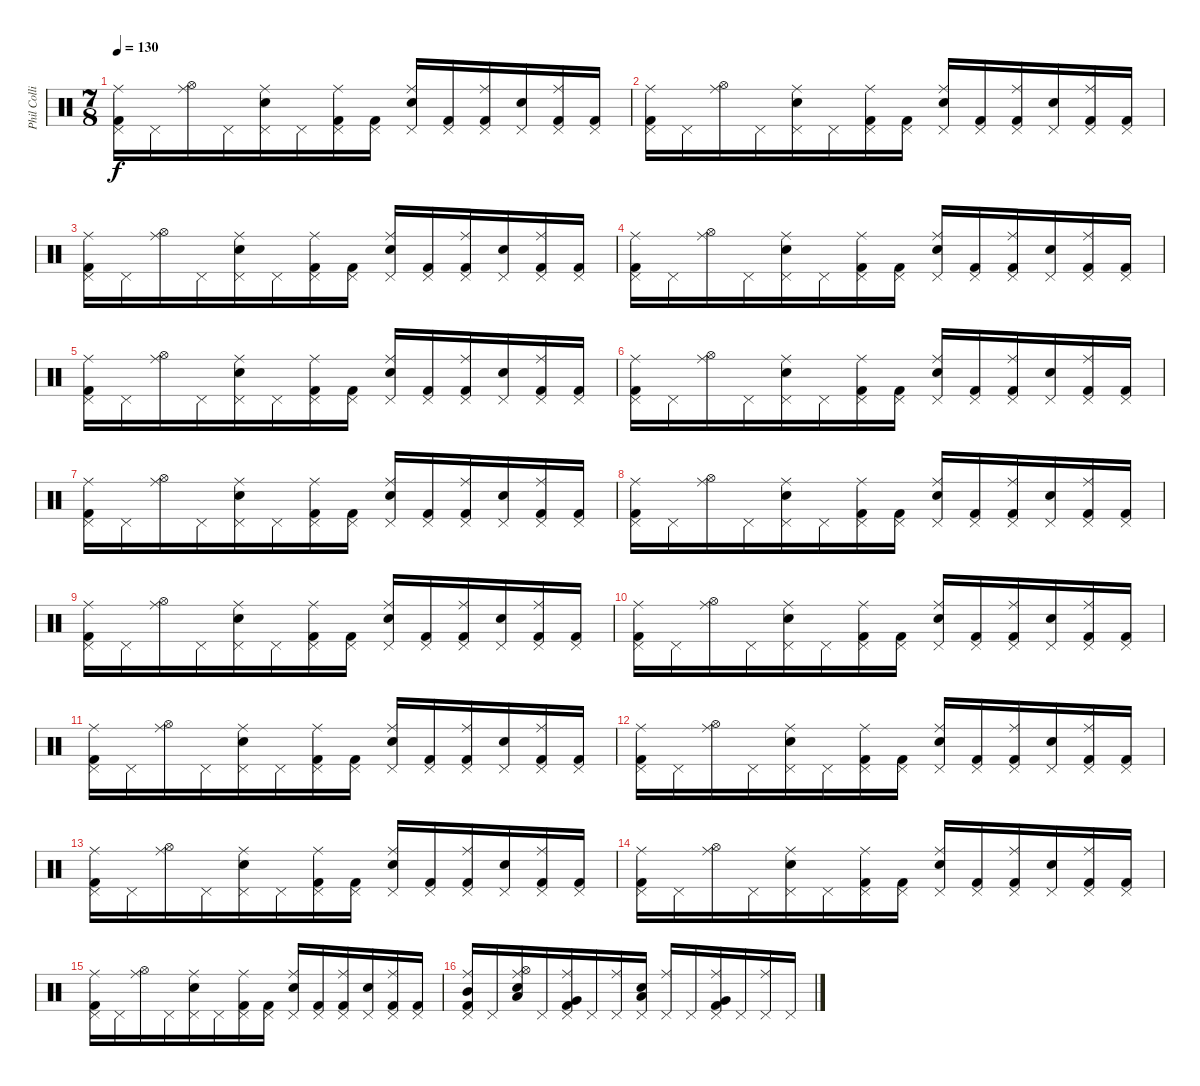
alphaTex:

\track ("Phil Collins (drums)" "Phil Colli") {instrument percussion}
\staff {score}
\articulation defaults
\ts (7 8)
\tempo 130
\clef neutral
\ks c
("Ride (middle)" "Pedal Hi-Hat (hit)" "Kick (hit) 2").16{dy f} "Pedal Hi-Hat (hit)".16 ("Ride (middle)" "Hi-Hat (open)").16 "Pedal Hi-Hat (hit)".16 ("Ride (middle)" "Pedal Hi-Hat (hit)" "Electric Snare (hit)").16 "Pedal Hi-Hat (hit)".16 ("Ride (middle)" "Pedal Hi-Hat (hit)" "Kick (hit) 2").16 ("Pedal Hi-Hat (hit)" "Kick (hit) 2").16 ("Ride (middle)" "Pedal Hi-Hat (hit)" "Electric Snare (hit)").16 ("Pedal Hi-Hat (hit)" "Kick (hit) 2").16 ("Ride (middle)" "Pedal Hi-Hat (hit)" "Kick (hit) 2").16 ("Pedal Hi-Hat (hit)" "Electric Snare (hit)").16 ("Ride (middle)" "Pedal Hi-Hat (hit)" "Kick (hit) 2").16 ("Pedal Hi-Hat (hit)" "Kick (hit) 2").16 |
("Ride (middle)" "Pedal Hi-Hat (hit)" "Kick (hit) 2").16 "Pedal Hi-Hat (hit)".16 ("Ride (middle)" "Hi-Hat (open)").16 "Pedal Hi-Hat (hit)".16 ("Ride (middle)" "Pedal Hi-Hat (hit)" "Electric Snare (hit)").16 "Pedal Hi-Hat (hit)".16 ("Ride (middle)" "Pedal Hi-Hat (hit)" "Kick (hit) 2").16 ("Pedal Hi-Hat (hit)" "Kick (hit) 2").16 ("Ride (middle)" "Pedal Hi-Hat (hit)" "Electric Snare (hit)").16 ("Pedal Hi-Hat (hit)" "Kick (hit) 2").16 ("Ride (middle)" "Pedal Hi-Hat (hit)" "Kick (hit) 2").16 ("Pedal Hi-Hat (hit)" "Electric Snare (hit)").16 ("Ride (middle)" "Pedal Hi-Hat (hit)" "Kick (hit) 2").16 ("Pedal Hi-Hat (hit)" "Kick (hit) 2").16 |
("Ride (middle)" "Pedal Hi-Hat (hit)" "Kick (hit) 2").16 "Pedal Hi-Hat (hit)".16 ("Ride (middle)" "Hi-Hat (open)").16 "Pedal Hi-Hat (hit)".16 ("Ride (middle)" "Pedal Hi-Hat (hit)" "Electric Snare (hit)").16 "Pedal Hi-Hat (hit)".16 ("Ride (middle)" "Pedal Hi-Hat (hit)" "Kick (hit) 2").16 ("Pedal Hi-Hat (hit)" "Kick (hit) 2").16 ("Ride (middle)" "Pedal Hi-Hat (hit)" "Electric Snare (hit)").16 ("Pedal Hi-Hat (hit)" "Kick (hit) 2").16 ("Ride (middle)" "Pedal Hi-Hat (hit)" "Kick (hit) 2").16 ("Pedal Hi-Hat (hit)" "Electric Snare (hit)").16 ("Ride (middle)" "Pedal Hi-Hat (hit)" "Kick (hit) 2").16 ("Pedal Hi-Hat (hit)" "Kick (hit) 2").16 |
("Ride (middle)" "Pedal Hi-Hat (hit)" "Kick (hit) 2").16 "Pedal Hi-Hat (hit)".16 ("Ride (middle)" "Hi-Hat (open)").16 "Pedal Hi-Hat (hit)".16 ("Ride (middle)" "Pedal Hi-Hat (hit)" "Electric Snare (hit)").16 "Pedal Hi-Hat (hit)".16 ("Ride (middle)" "Pedal Hi-Hat (hit)" "Kick (hit) 2").16 ("Pedal Hi-Hat (hit)" "Kick (hit) 2").16 ("Ride (middle)" "Pedal Hi-Hat (hit)" "Electric Snare (hit)").16 ("Pedal Hi-Hat (hit)" "Kick (hit) 2").16 ("Ride (middle)" "Pedal Hi-Hat (hit)" "Kick (hit) 2").16 ("Pedal Hi-Hat (hit)" "Electric Snare (hit)").16 ("Ride (middle)" "Pedal Hi-Hat (hit)" "Kick (hit) 2").16 ("Pedal Hi-Hat (hit)" "Kick (hit) 2").16 |
("Ride (middle)" "Pedal Hi-Hat (hit)" "Kick (hit) 2").16 "Pedal Hi-Hat (hit)".16 ("Ride (middle)" "Hi-Hat (open)").16 "Pedal Hi-Hat (hit)".16 ("Ride (middle)" "Pedal Hi-Hat (hit)" "Electric Snare (hit)").16 "Pedal Hi-Hat (hit)".16 ("Ride (middle)" "Pedal Hi-Hat (hit)" "Kick (hit) 2").16 ("Pedal Hi-Hat (hit)" "Kick (hit) 2").16 ("Ride (middle)" "Pedal Hi-Hat (hit)" "Electric Snare (hit)").16 ("Pedal Hi-Hat (hit)" "Kick (hit) 2").16 ("Ride (middle)" "Pedal Hi-Hat (hit)" "Kick (hit) 2").16 ("Pedal Hi-Hat (hit)" "Electric Snare (hit)").16 ("Ride (middle)" "Pedal Hi-Hat (hit)" "Kick (hit) 2").16 ("Pedal Hi-Hat (hit)" "Kick (hit) 2").16 |
("Ride (middle)" "Pedal Hi-Hat (hit)" "Kick (hit) 2").16 "Pedal Hi-Hat (hit)".16 ("Ride (middle)" "Hi-Hat (open)").16 "Pedal Hi-Hat (hit)".16 ("Ride (middle)" "Pedal Hi-Hat (hit)" "Electric Snare (hit)").16 "Pedal Hi-Hat (hit)".16 ("Ride (middle)" "Pedal Hi-Hat (hit)" "Kick (hit) 2").16 ("Pedal Hi-Hat (hit)" "Kick (hit) 2").16 ("Ride (middle)" "Pedal Hi-Hat (hit)" "Electric Snare (hit)").16 ("Pedal Hi-Hat (hit)" "Kick (hit) 2").16 ("Ride (middle)" "Pedal Hi-Hat (hit)" "Kick (hit) 2").16 ("Pedal Hi-Hat (hit)" "Electric Snare (hit)").16 ("Ride (middle)" "Pedal Hi-Hat (hit)" "Kick (hit) 2").16 ("Pedal Hi-Hat (hit)" "Kick (hit) 2").16 |
("Ride (middle)" "Pedal Hi-Hat (hit)" "Kick (hit) 2").16 "Pedal Hi-Hat (hit)".16 ("Ride (middle)" "Hi-Hat (open)").16 "Pedal Hi-Hat (hit)".16 ("Ride (middle)" "Pedal Hi-Hat (hit)" "Electric Snare (hit)").16 "Pedal Hi-Hat (hit)".16 ("Ride (middle)" "Pedal Hi-Hat (hit)" "Kick (hit) 2").16 ("Pedal Hi-Hat (hit)" "Kick (hit) 2").16 ("Ride (middle)" "Pedal Hi-Hat (hit)" "Electric Snare (hit)").16 ("Pedal Hi-Hat (hit)" "Kick (hit) 2").16 ("Ride (middle)" "Pedal Hi-Hat (hit)" "Kick (hit) 2").16 ("Pedal Hi-Hat (hit)" "Electric Snare (hit)").16 ("Ride (middle)" "Pedal Hi-Hat (hit)" "Kick (hit) 2").16 ("Pedal Hi-Hat (hit)" "Kick (hit) 2").16 |
("Ride (middle)" "Pedal Hi-Hat (hit)" "Kick (hit) 2").16 "Pedal Hi-Hat (hit)".16 ("Ride (middle)" "Hi-Hat (open)").16 "Pedal Hi-Hat (hit)".16 ("Ride (middle)" "Pedal Hi-Hat (hit)" "Electric Snare (hit)").16 "Pedal Hi-Hat (hit)".16 ("Ride (middle)" "Pedal Hi-Hat (hit)" "Kick (hit) 2").16 ("Pedal Hi-Hat (hit)" "Kick (hit) 2").16 ("Ride (middle)" "Pedal Hi-Hat (hit)" "Electric Snare (hit)").16 ("Pedal Hi-Hat (hit)" "Kick (hit) 2").16 ("Ride (middle)" "Pedal Hi-Hat (hit)" "Kick (hit) 2").16 ("Pedal Hi-Hat (hit)" "Electric Snare (hit)").16 ("Ride (middle)" "Pedal Hi-Hat (hit)" "Kick (hit) 2").16 ("Pedal Hi-Hat (hit)" "Kick (hit) 2").16 |
("Ride (middle)" "Pedal Hi-Hat (hit)" "Kick (hit) 2").16 "Pedal Hi-Hat (hit)".16 ("Ride (middle)" "Hi-Hat (open)").16 "Pedal Hi-Hat (hit)".16 ("Ride (middle)" "Pedal Hi-Hat (hit)" "Electric Snare (hit)").16 "Pedal Hi-Hat (hit)".16 ("Ride (middle)" "Pedal Hi-Hat (hit)" "Kick (hit) 2").16 ("Pedal Hi-Hat (hit)" "Kick (hit) 2").16 ("Ride (middle)" "Pedal Hi-Hat (hit)" "Electric Snare (hit)").16 ("Pedal Hi-Hat (hit)" "Kick (hit) 2").16 ("Ride (middle)" "Pedal Hi-Hat (hit)" "Kick (hit) 2").16 ("Pedal Hi-Hat (hit)" "Electric Snare (hit)").16 ("Ride (middle)" "Pedal Hi-Hat (hit)" "Kick (hit) 2").16 ("Pedal Hi-Hat (hit)" "Kick (hit) 2").16 |
("Ride (middle)" "Pedal Hi-Hat (hit)" "Kick (hit) 2").16 "Pedal Hi-Hat (hit)".16 ("Ride (middle)" "Hi-Hat (open)").16 "Pedal Hi-Hat (hit)".16 ("Ride (middle)" "Pedal Hi-Hat (hit)" "Electric Snare (hit)").16 "Pedal Hi-Hat (hit)".16 ("Ride (middle)" "Pedal Hi-Hat (hit)" "Kick (hit) 2").16 ("Pedal Hi-Hat (hit)" "Kick (hit) 2").16 ("Ride (middle)" "Pedal Hi-Hat (hit)" "Electric Snare (hit)").16 ("Pedal Hi-Hat (hit)" "Kick (hit) 2").16 ("Ride (middle)" "Pedal Hi-Hat (hit)" "Kick (hit) 2").16 ("Pedal Hi-Hat (hit)" "Electric Snare (hit)").16 ("Ride (middle)" "Pedal Hi-Hat (hit)" "Kick (hit) 2").16 ("Pedal Hi-Hat (hit)" "Kick (hit) 2").16 |
("Ride (middle)" "Pedal Hi-Hat (hit)" "Kick (hit) 2").16 "Pedal Hi-Hat (hit)".16 ("Ride (middle)" "Hi-Hat (open)").16 "Pedal Hi-Hat (hit)".16 ("Ride (middle)" "Pedal Hi-Hat (hit)" "Electric Snare (hit)").16 "Pedal Hi-Hat (hit)".16 ("Ride (middle)" "Pedal Hi-Hat (hit)" "Kick (hit) 2").16 ("Pedal Hi-Hat (hit)" "Kick (hit) 2").16 ("Ride (middle)" "Pedal Hi-Hat (hit)" "Electric Snare (hit)").16 ("Pedal Hi-Hat (hit)" "Kick (hit) 2").16 ("Ride (middle)" "Pedal Hi-Hat (hit)" "Kick (hit) 2").16 ("Pedal Hi-Hat (hit)" "Electric Snare (hit)").16 ("Ride (middle)" "Pedal Hi-Hat (hit)" "Kick (hit) 2").16 ("Pedal Hi-Hat (hit)" "Kick (hit) 2").16 |
("Ride (middle)" "Pedal Hi-Hat (hit)" "Kick (hit) 2").16 "Pedal Hi-Hat (hit)".16 ("Ride (middle)" "Hi-Hat (open)").16 "Pedal Hi-Hat (hit)".16 ("Ride (middle)" "Pedal Hi-Hat (hit)" "Electric Snare (hit)").16 "Pedal Hi-Hat (hit)".16 ("Ride (middle)" "Pedal Hi-Hat (hit)" "Kick (hit) 2").16 ("Pedal Hi-Hat (hit)" "Kick (hit) 2").16 ("Ride (middle)" "Pedal Hi-Hat (hit)" "Electric Snare (hit)").16 ("Pedal Hi-Hat (hit)" "Kick (hit) 2").16 ("Ride (middle)" "Pedal Hi-Hat (hit)" "Kick (hit) 2").16 ("Pedal Hi-Hat (hit)" "Electric Snare (hit)").16 ("Ride (middle)" "Pedal Hi-Hat (hit)" "Kick (hit) 2").16 ("Pedal Hi-Hat (hit)" "Kick (hit) 2").16 |
("Ride (middle)" "Pedal Hi-Hat (hit)" "Kick (hit) 2").16 "Pedal Hi-Hat (hit)".16 ("Ride (middle)" "Hi-Hat (open)").16 "Pedal Hi-Hat (hit)".16 ("Ride (middle)" "Pedal Hi-Hat (hit)" "Electric Snare (hit)").16 "Pedal Hi-Hat (hit)".16 ("Ride (middle)" "Pedal Hi-Hat (hit)" "Kick (hit) 2").16 ("Pedal Hi-Hat (hit)" "Kick (hit) 2").16 ("Ride (middle)" "Pedal Hi-Hat (hit)" "Electric Snare (hit)").16 ("Pedal Hi-Hat (hit)" "Kick (hit) 2").16 ("Ride (middle)" "Pedal Hi-Hat (hit)" "Kick (hit) 2").16 ("Pedal Hi-Hat (hit)" "Electric Snare (hit)").16 ("Ride (middle)" "Pedal Hi-Hat (hit)" "Kick (hit) 2").16 ("Pedal Hi-Hat (hit)" "Kick (hit) 2").16 |
("Ride (middle)" "Pedal Hi-Hat (hit)" "Kick (hit) 2").16 "Pedal Hi-Hat (hit)".16 ("Ride (middle)" "Hi-Hat (open)").16 "Pedal Hi-Hat (hit)".16 ("Ride (middle)" "Pedal Hi-Hat (hit)" "Electric Snare (hit)").16 "Pedal Hi-Hat (hit)".16 ("Ride (middle)" "Pedal Hi-Hat (hit)" "Kick (hit) 2").16 ("Pedal Hi-Hat (hit)" "Kick (hit) 2").16 ("Ride (middle)" "Pedal Hi-Hat (hit)" "Electric Snare (hit)").16 ("Pedal Hi-Hat (hit)" "Kick (hit) 2").16 ("Ride (middle)" "Pedal Hi-Hat (hit)" "Kick (hit) 2").16 ("Pedal Hi-Hat (hit)" "Electric Snare (hit)").16 ("Ride (middle)" "Pedal Hi-Hat (hit)" "Kick (hit) 2").16 ("Pedal Hi-Hat (hit)" "Kick (hit) 2").16 |
("Ride (middle)" "Pedal Hi-Hat (hit)" "Kick (hit) 2").16 "Pedal Hi-Hat (hit)".16 ("Ride (middle)" "Hi-Hat (open)").16 "Pedal Hi-Hat (hit)".16 ("Ride (middle)" "Pedal Hi-Hat (hit)" "Electric Snare (hit)").16 "Pedal Hi-Hat (hit)".16 ("Ride (middle)" "Pedal Hi-Hat (hit)" "Kick (hit) 2").16 ("Pedal Hi-Hat (hit)" "Kick (hit) 2").16 ("Ride (middle)" "Pedal Hi-Hat (hit)" "Electric Snare (hit)").16 ("Pedal Hi-Hat (hit)" "Kick (hit) 2").16 ("Ride (middle)" "Pedal Hi-Hat (hit)" "Kick (hit) 2").16 ("Pedal Hi-Hat (hit)" "Electric Snare (hit)").16 ("Ride (middle)" "Pedal Hi-Hat (hit)" "Kick (hit) 2").16 ("Pedal Hi-Hat (hit)" "Kick (hit) 2").16 |
("Mid Tom (hit)" "Ride (middle)" "Pedal Hi-Hat (hit)" "Kick (hit) 2").16 "Pedal Hi-Hat (hit)".16 ("Low Tom (hit)" "Ride (middle)" "Hi-Hat (open)" "Electric Snare (hit)").16 "Pedal Hi-Hat (hit)".16 ("Very Low Tom (hit)" "Ride (middle)" "Pedal Hi-Hat (hit)" "Kick (hit) 2").16 "Pedal Hi-Hat (hit)".16 ("Ride (middle)" "Pedal Hi-Hat (hit)").16 ("Low Tom (hit)" "Pedal Hi-Hat (hit)" "Electric Snare (hit)").16 ("Ride (middle)" "Pedal Hi-Hat (hit)").16 "Pedal Hi-Hat (hit)".16 ("Very Low Tom (hit)" "Ride (middle)" "Pedal Hi-Hat (hit)" "Kick (hit) 2").16 "Pedal Hi-Hat (hit)".16 ("Ride (middle)" "Pedal Hi-Hat (hit)").16 "Pedal Hi-Hat (hit)".16
